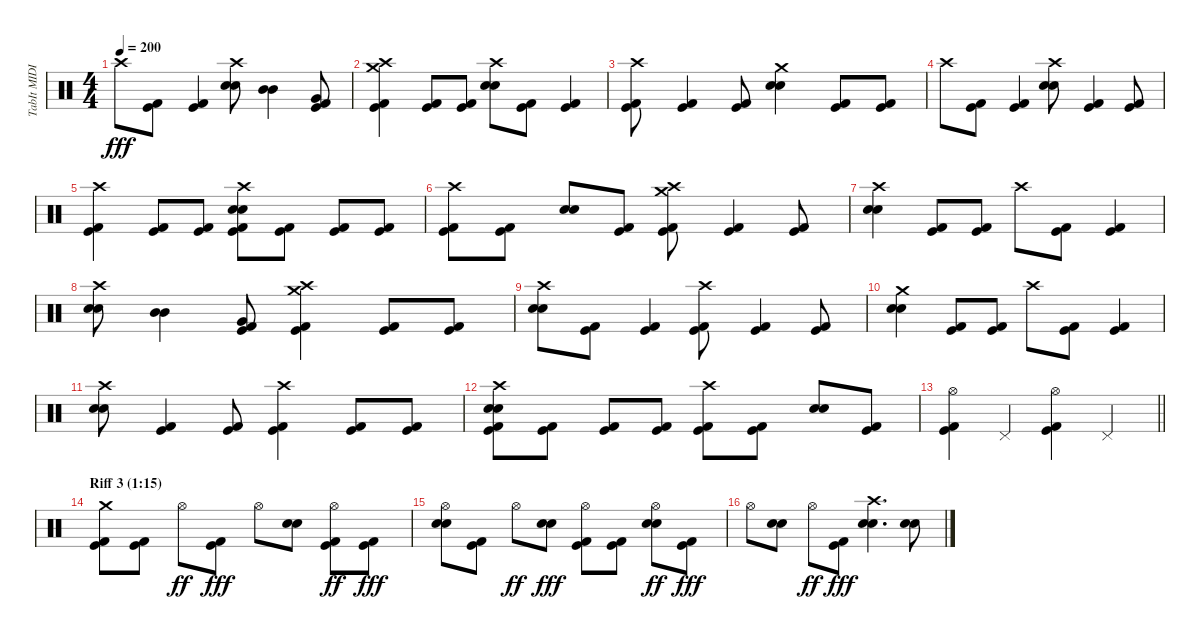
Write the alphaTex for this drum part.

\track ("TabIt MIDI - Track 4" "TabIt MIDI") {instrument percussion}
\staff {score}
\articulation defaults
\ts (4 4)
\tempo 200
\clef neutral
\ks c "Crash high (hit)".8{dy fff}
("Kick (hit)" "Kick (hit) 2").8 ("Kick (hit)" "Kick (hit) 2").4 ("Electric Snare (hit)" "Electric Snare (hit)" "Crash high (hit)").8 ("Mid Tom (hit)" "Mid Tom (hit)").4 ("Kick (hit)" "Kick (hit) 2" "Very Low Tom (hit)").8 |
("Kick (hit)" "Kick (hit) 2" "Crash medium (hit)" "Crash high (hit)").4 ("Kick (hit)" "Kick (hit) 2").8 ("Kick (hit)" "Kick (hit) 2").8 ("Electric Snare (hit)" "Electric Snare (hit)" "Crash high (hit)").8 ("Kick (hit)" "Kick (hit) 2").8 ("Kick (hit)" "Kick (hit) 2").4 |
("Kick (hit)" "Kick (hit) 2" "Crash high (hit)").8 ("Kick (hit)" "Kick (hit) 2").4 ("Kick (hit)" "Kick (hit) 2").8 ("Electric Snare (hit)" "Electric Snare (hit)" "Crash medium (hit)").4 ("Kick (hit)" "Kick (hit) 2").8 ("Kick (hit)" "Kick (hit) 2").8 |
"Crash high (hit)".8 ("Kick (hit)" "Kick (hit) 2").8 ("Kick (hit)" "Kick (hit) 2").4 ("Electric Snare (hit)" "Electric Snare (hit)" "Crash high (hit)").8 ("Kick (hit)" "Kick (hit) 2").4 ("Kick (hit)" "Kick (hit) 2").8 |
("Kick (hit)" "Kick (hit) 2" "Crash high (hit)").4 ("Kick (hit)" "Kick (hit) 2").8 ("Kick (hit)" "Kick (hit) 2").8 ("Kick (hit)" "Kick (hit) 2" "Electric Snare (hit)" "Electric Snare (hit)" "Crash high (hit)").8 ("Kick (hit)" "Kick (hit) 2").8 ("Kick (hit)" "Kick (hit) 2").8 ("Kick (hit)" "Kick (hit) 2").8 |
("Kick (hit)" "Kick (hit) 2" "Crash high (hit)").8 ("Kick (hit)" "Kick (hit) 2").8 ("Electric Snare (hit)" "Electric Snare (hit)").8 ("Kick (hit)" "Kick (hit) 2").8 ("Kick (hit)" "Kick (hit) 2" "Crash medium (hit)" "Crash high (hit)").8 ("Kick (hit)" "Kick (hit) 2").4 ("Kick (hit)" "Kick (hit) 2").8 |
("Electric Snare (hit)" "Electric Snare (hit)" "Crash high (hit)").4 ("Kick (hit)" "Kick (hit) 2").8 ("Kick (hit)" "Kick (hit) 2").8 "Crash high (hit)".8 ("Kick (hit)" "Kick (hit) 2").8 ("Kick (hit)" "Kick (hit) 2").4 |
("Electric Snare (hit)" "Electric Snare (hit)" "Crash high (hit)").8 ("Mid Tom (hit)" "Mid Tom (hit)").4 ("Kick (hit)" "Kick (hit) 2" "Very Low Tom (hit)").8 ("Kick (hit)" "Kick (hit) 2" "Crash medium (hit)" "Crash high (hit)").4 ("Kick (hit)" "Kick (hit) 2").8 ("Kick (hit)" "Kick (hit) 2").8 |
("Electric Snare (hit)" "Electric Snare (hit)" "Crash high (hit)").8 ("Kick (hit)" "Kick (hit) 2").8 ("Kick (hit)" "Kick (hit) 2").4 ("Kick (hit)" "Kick (hit) 2" "Crash high (hit)").8 ("Kick (hit)" "Kick (hit) 2").4 ("Kick (hit)" "Kick (hit) 2").8 |
("Electric Snare (hit)" "Electric Snare (hit)" "Crash medium (hit)").4 ("Kick (hit)" "Kick (hit) 2").8 ("Kick (hit)" "Kick (hit) 2").8 "Crash high (hit)".8 ("Kick (hit)" "Kick (hit) 2").8 ("Kick (hit)" "Kick (hit) 2").4 |
("Electric Snare (hit)" "Electric Snare (hit)" "Crash high (hit)").8 ("Kick (hit)" "Kick (hit) 2").4 ("Kick (hit)" "Kick (hit) 2").8 ("Kick (hit)" "Kick (hit) 2" "Crash high (hit)").4 ("Kick (hit)" "Kick (hit) 2").8 ("Kick (hit)" "Kick (hit) 2").8 |
("Kick (hit)" "Kick (hit) 2" "Electric Snare (hit)" "Electric Snare (hit)" "Crash high (hit)").8 ("Kick (hit)" "Kick (hit) 2").8 ("Kick (hit)" "Kick (hit) 2").8 ("Kick (hit)" "Kick (hit) 2").8 ("Kick (hit)" "Kick (hit) 2" "Crash high (hit)").8 ("Kick (hit)" "Kick (hit) 2").8 ("Electric Snare (hit)" "Electric Snare (hit)").8 ("Kick (hit)" "Kick (hit) 2").8 |
\barLineRight lightlight
("Kick (hit)" "Kick (hit) 2" "Hi-Hat (open)").4 "Pedal Hi-Hat (hit)".4 ("Kick (hit)" "Kick (hit) 2" "Hi-Hat (open)").4 "Pedal Hi-Hat (hit)".4 |
\section ("" "Riff 3 (1:15)")
("Kick (hit)" "Kick (hit) 2" "Crash medium (hit)").8 ("Kick (hit)" "Kick (hit) 2").8 "Hi-Hat (open)".8{dy ff} ("Kick (hit)" "Kick (hit) 2").8{dy fff} "Hi-Hat (open)".8 ("Electric Snare (hit)" "Electric Snare (hit)").8 ("Kick (hit)" "Kick (hit) 2" "Hi-Hat (open)").8{dy ff} ("Kick (hit)" "Kick (hit) 2").8{dy fff} |
("Electric Snare (hit)" "Electric Snare (hit)" "Hi-Hat (open)").8 ("Kick (hit)" "Kick (hit) 2").8 "Hi-Hat (open)".8{dy ff} ("Electric Snare (hit)" "Electric Snare (hit)").8{dy fff} ("Kick (hit)" "Kick (hit) 2" "Hi-Hat (open)").8 ("Kick (hit)" "Kick (hit) 2").8 ("Electric Snare (hit)" "Electric Snare (hit)" "Hi-Hat (open)").8{dy ff} ("Kick (hit)" "Kick (hit) 2").8{dy fff} |
"Hi-Hat (open)".8 ("Electric Snare (hit)" "Electric Snare (hit)").8 "Hi-Hat (open)".8{dy ff} ("Kick (hit)" "Kick (hit) 2").8{dy fff} ("Electric Snare (hit)" "Electric Snare (hit)" "Crash high (hit)").4{d} ("Electric Snare (hit)" "Electric Snare (hit)").8
